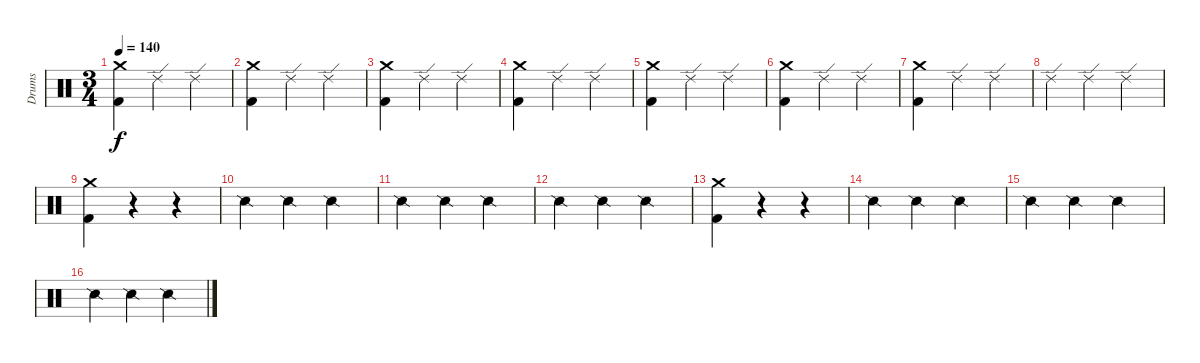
\track ("Drums" "Drums") {instrument percussion}
\staff {score}
\articulation defaults
\ts (3 4)
\tempo 140
\clef neutral
\ks c
("Kick (hit) 2" "Crash medium (hit)").4{dy f} "Ride (edge) 2".4 "Ride (edge) 2".4 |
("Kick (hit) 2" "Crash medium (hit)").4 "Ride (edge) 2".4 "Ride (edge) 2".4 |
("Kick (hit) 2" "Crash medium (hit)").4 "Ride (edge) 2".4 "Ride (edge) 2".4 |
("Kick (hit) 2" "Crash medium (hit)").4 "Ride (edge) 2".4 "Ride (edge) 2".4 |
("Kick (hit) 2" "Crash medium (hit)").4 "Ride (edge) 2".4 "Ride (edge) 2".4 |
("Kick (hit) 2" "Crash medium (hit)").4 "Ride (edge) 2".4 "Ride (edge) 2".4 |
("Kick (hit) 2" "Crash medium (hit)").4 "Ride (edge) 2".4 "Ride (edge) 2".4 |
"Ride (edge) 2".4 "Ride (edge) 2".4 "Ride (edge) 2".4 |
("Kick (hit) 2" "Crash medium (hit)").4 r.4 r.4 |
"Snare (side stick) 2".4 "Snare (side stick) 2".4 "Snare (side stick) 2".4 |
"Snare (side stick) 2".4 "Snare (side stick) 2".4 "Snare (side stick) 2".4 |
"Snare (side stick) 2".4 "Snare (side stick) 2".4 "Snare (side stick) 2".4 |
("Kick (hit) 2" "Crash medium (hit)").4 r.4 r.4 |
"Snare (side stick) 2".4 "Snare (side stick) 2".4 "Snare (side stick) 2".4 |
"Snare (side stick) 2".4 "Snare (side stick) 2".4 "Snare (side stick) 2".4 |
"Snare (side stick) 2".4 "Snare (side stick) 2".4 "Snare (side stick) 2".4
